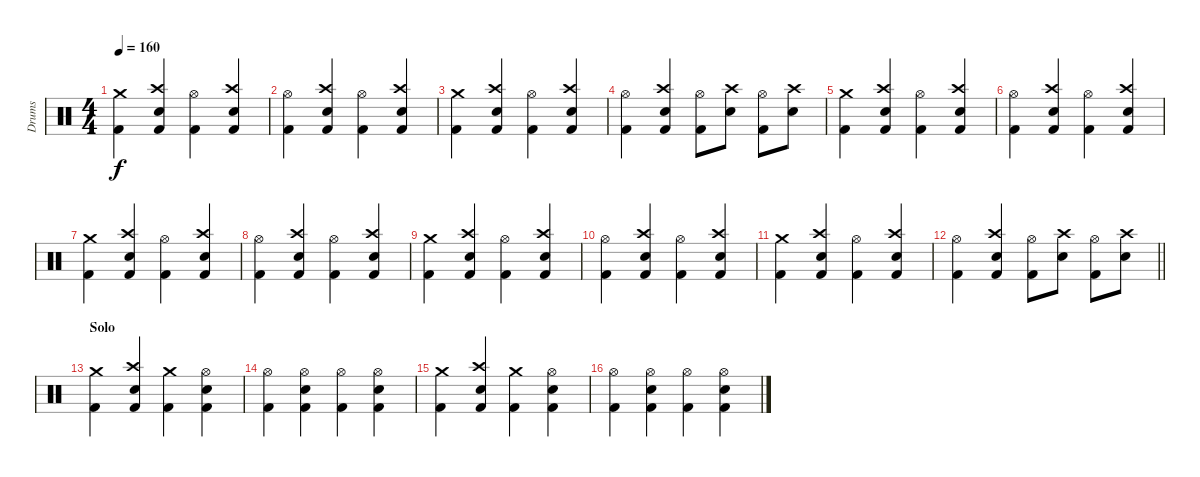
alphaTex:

\track ("Drums" "Drums") {instrument percussion}
\staff {score}
\articulation defaults
\ts (4 4)
\tempo 160
\clef neutral
\ks c
("Crash medium (hit)" "Kick (hit) 2").4{dy f} ("Crash high (hit)" "Electric Snare (hit)" "Kick (hit) 2").4 ("Hi-Hat (open)" "Kick (hit) 2").4 ("Crash high (hit)" "Electric Snare (hit)" "Kick (hit) 2").4 |
("Hi-Hat (open)" "Kick (hit) 2").4 ("Crash high (hit)" "Electric Snare (hit)" "Kick (hit) 2").4 ("Hi-Hat (open)" "Kick (hit) 2").4 ("Crash high (hit)" "Electric Snare (hit)" "Kick (hit) 2").4 |
("Crash medium (hit)" "Kick (hit) 2").4 ("Crash high (hit)" "Electric Snare (hit)" "Kick (hit) 2").4 ("Hi-Hat (open)" "Kick (hit) 2").4 ("Crash high (hit)" "Electric Snare (hit)" "Kick (hit) 2").4 |
("Hi-Hat (open)" "Kick (hit) 2").4 ("Crash high (hit)" "Electric Snare (hit)" "Kick (hit) 2").4 ("Hi-Hat (open)" "Kick (hit) 2").8 ("Crash high (hit)" "Electric Snare (hit)").8 ("Hi-Hat (open)" "Kick (hit) 2").8 ("Crash high (hit)" "Electric Snare (hit)").8 |
("Crash medium (hit)" "Kick (hit) 2").4 ("Crash high (hit)" "Electric Snare (hit)" "Kick (hit) 2").4 ("Hi-Hat (open)" "Kick (hit) 2").4 ("Crash high (hit)" "Electric Snare (hit)" "Kick (hit) 2").4 |
("Hi-Hat (open)" "Kick (hit) 2").4 ("Crash high (hit)" "Electric Snare (hit)" "Kick (hit) 2").4 ("Hi-Hat (open)" "Kick (hit) 2").4 ("Crash high (hit)" "Electric Snare (hit)" "Kick (hit) 2").4 |
("Crash medium (hit)" "Kick (hit) 2").4 ("Crash high (hit)" "Electric Snare (hit)" "Kick (hit) 2").4 ("Hi-Hat (open)" "Kick (hit) 2").4 ("Crash high (hit)" "Electric Snare (hit)" "Kick (hit) 2").4 |
("Hi-Hat (open)" "Kick (hit) 2").4 ("Crash high (hit)" "Electric Snare (hit)" "Kick (hit) 2").4 ("Hi-Hat (open)" "Kick (hit) 2").4 ("Crash high (hit)" "Electric Snare (hit)" "Kick (hit) 2").4 |
("Crash medium (hit)" "Kick (hit) 2").4 ("Crash high (hit)" "Electric Snare (hit)" "Kick (hit) 2").4 ("Hi-Hat (open)" "Kick (hit) 2").4 ("Crash high (hit)" "Electric Snare (hit)" "Kick (hit) 2").4 |
("Hi-Hat (open)" "Kick (hit) 2").4 ("Crash high (hit)" "Electric Snare (hit)" "Kick (hit) 2").4 ("Hi-Hat (open)" "Kick (hit) 2").4 ("Crash high (hit)" "Electric Snare (hit)" "Kick (hit) 2").4 |
("Crash medium (hit)" "Kick (hit) 2").4 ("Crash high (hit)" "Electric Snare (hit)" "Kick (hit) 2").4 ("Hi-Hat (open)" "Kick (hit) 2").4 ("Crash high (hit)" "Electric Snare (hit)" "Kick (hit) 2").4 |
\barLineRight lightlight
("Hi-Hat (open)" "Kick (hit) 2").4 ("Crash high (hit)" "Electric Snare (hit)" "Kick (hit) 2").4 ("Hi-Hat (open)" "Kick (hit) 2").8 ("Crash high (hit)" "Electric Snare (hit)").8 ("Hi-Hat (open)" "Kick (hit) 2").8 ("Crash high (hit)" "Electric Snare (hit)").8 |
\section ("" "Solo")
("Crash medium (hit)" "Kick (hit) 2").4 ("Crash high (hit)" "Electric Snare (hit)" "Kick (hit) 2").4 ("Crash medium (hit)" "Kick (hit) 2").4 ("Hi-Hat (open)" "Electric Snare (hit)" "Kick (hit) 2").4 |
("Hi-Hat (open)" "Kick (hit) 2").4 ("Hi-Hat (open)" "Electric Snare (hit)" "Kick (hit) 2").4 ("Hi-Hat (open)" "Kick (hit) 2").4 ("Hi-Hat (open)" "Electric Snare (hit)" "Kick (hit) 2").4 |
("Crash medium (hit)" "Kick (hit) 2").4 ("Crash high (hit)" "Electric Snare (hit)" "Kick (hit) 2").4 ("Crash medium (hit)" "Kick (hit) 2").4 ("Hi-Hat (open)" "Electric Snare (hit)" "Kick (hit) 2").4 |
("Hi-Hat (open)" "Kick (hit) 2").4 ("Hi-Hat (open)" "Electric Snare (hit)" "Kick (hit) 2").4 ("Hi-Hat (open)" "Kick (hit) 2").4 ("Hi-Hat (open)" "Electric Snare (hit)" "Kick (hit) 2").4
